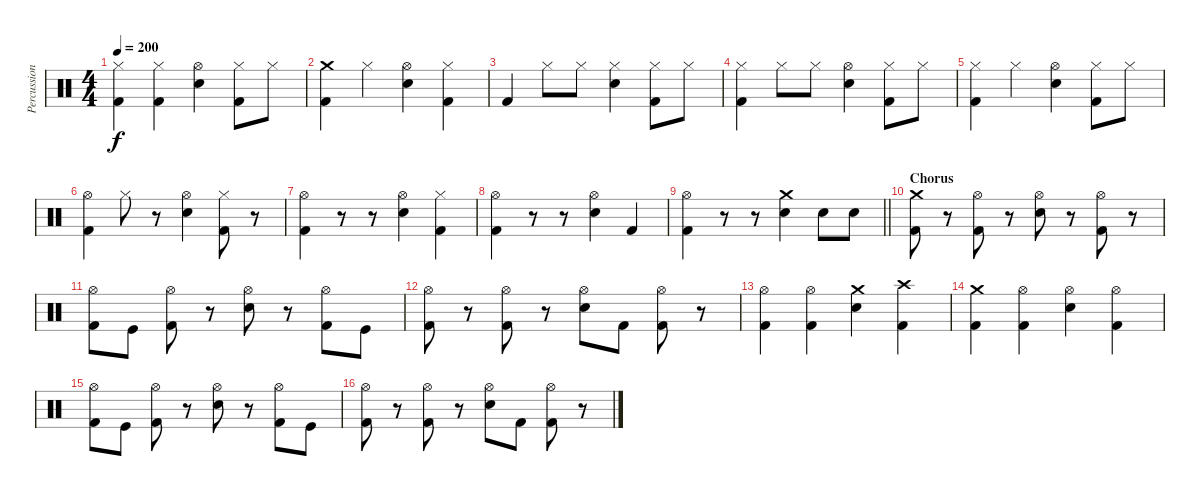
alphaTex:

\track ("Percussion" "Percussion") {instrument percussion}
\staff {score}
\articulation defaults
\ts (4 4)
\tempo 200
\clef neutral
\ks c
("Hi-Hat (closed)" "Kick (hit) 2").4{dy f} ("Hi-Hat (closed)" "Kick (hit) 2").4 ("Hi-Hat (open)" "Snare (hit) 2").4 ("Hi-Hat (closed)" "Kick (hit) 2").8 "Hi-Hat (closed)".8 |
("Crash medium (hit)" "Kick (hit) 2").4 "Hi-Hat (closed)".4 ("Hi-Hat (open)" "Snare (hit) 2").4 ("Hi-Hat (closed)" "Kick (hit) 2").4 |
"Kick (hit) 2".4 "Hi-Hat (closed)".8 "Hi-Hat (closed)".8 ("Hi-Hat (closed)" "Snare (hit) 2").4 ("Hi-Hat (closed)" "Kick (hit) 2").8 "Hi-Hat (closed)".8 |
("Hi-Hat (closed)" "Kick (hit) 2").4 "Hi-Hat (closed)".8 "Hi-Hat (closed)".8 ("Hi-Hat (open)" "Snare (hit) 2").4 ("Hi-Hat (closed)" "Kick (hit) 2").8 "Hi-Hat (closed)".8 |
("Hi-Hat (closed)" "Kick (hit) 2").4 "Hi-Hat (closed)".4 ("Hi-Hat (open)" "Snare (hit) 2").4 ("Hi-Hat (closed)" "Kick (hit) 2").8 "Hi-Hat (closed)".8 |
("Hi-Hat (open)" "Kick (hit) 2").4 "Hi-Hat (closed)".8 r.8 ("Hi-Hat (open)" "Snare (hit) 2").4 ("Hi-Hat (closed)" "Kick (hit) 2").8 r.8 |
("Hi-Hat (open)" "Kick (hit) 2").4 r.8 r.8 ("Hi-Hat (open)" "Snare (hit) 2").4 ("Hi-Hat (closed)" "Kick (hit) 2").4 |
("Hi-Hat (open)" "Kick (hit) 2").4 r.8 r.8 ("Hi-Hat (open)" "Snare (hit) 2").4 "Kick (hit) 2".4 |
\barLineRight lightlight
("Hi-Hat (open)" "Kick (hit) 2").4 r.8 r.8 ("Crash medium (hit)" "Snare (hit) 2").4 "Snare (hit) 2".8 "Snare (hit) 2".8 |
\section ("" "Chorus")
("Crash medium (hit)" "Kick (hit) 2").8 r.8 ("Hi-Hat (open)" "Kick (hit) 2").8 r.8 ("Hi-Hat (open)" "Snare (hit) 2").8 r.8 ("Hi-Hat (open)" "Kick (hit) 2").8 r.8 |
("Hi-Hat (open)" "Kick (hit) 2").8 "Kick (hit)".8 ("Hi-Hat (open)" "Kick (hit) 2").8 r.8 ("Hi-Hat (open)" "Snare (hit) 2").8 r.8 ("Hi-Hat (open)" "Kick (hit) 2").8 "Kick (hit)".8 |
("Hi-Hat (open)" "Kick (hit) 2").8 r.8 ("Hi-Hat (open)" "Kick (hit) 2").8 r.8 ("Hi-Hat (open)" "Snare (hit) 2").8 "Kick (hit) 2".8 ("Hi-Hat (open)" "Kick (hit) 2").8 r.8 |
("Hi-Hat (open)" "Kick (hit) 2").4 ("Hi-Hat (open)" "Kick (hit) 2").4 ("Crash medium (hit)" "Snare (hit) 2").4 ("Crash high (hit)" "Kick (hit) 2").4 |
("Crash medium (hit)" "Kick (hit) 2").4 ("Hi-Hat (open)" "Kick (hit) 2").4 ("Hi-Hat (open)" "Snare (hit) 2").4 ("Hi-Hat (open)" "Kick (hit) 2").4 |
("Hi-Hat (open)" "Kick (hit) 2").8 "Kick (hit)".8 ("Hi-Hat (open)" "Kick (hit) 2").8 r.8 ("Hi-Hat (open)" "Snare (hit) 2").8 r.8 ("Hi-Hat (open)" "Kick (hit) 2").8 "Kick (hit)".8 |
("Hi-Hat (open)" "Kick (hit) 2").8 r.8 ("Hi-Hat (open)" "Kick (hit) 2").8 r.8 ("Hi-Hat (open)" "Snare (hit) 2").8 "Kick (hit) 2".8 ("Hi-Hat (open)" "Kick (hit) 2").8 r.8
